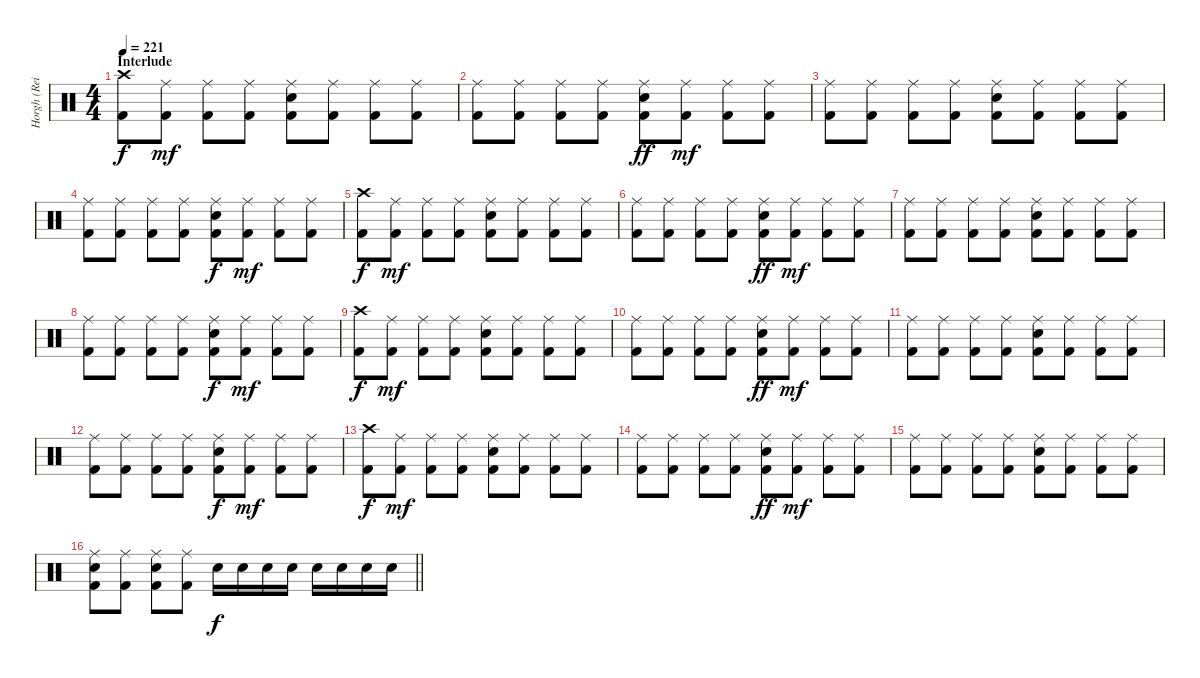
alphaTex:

\track ("Horgh (Reidar Horghagen)" "Horgh (Rei") {instrument percussion}
\staff {score}
\articulation defaults
\ts (4 4)
\section ("" "Interlude")
\tempo 221
\clef neutral
\ks c
("Crash high (hit)" "Kick (hit) 2").8{dy f} ("Ride (middle)" "Kick (hit) 2").8{dy mf} ("Ride (middle)" "Kick (hit) 2").8 ("Ride (middle)" "Kick (hit) 2").8 ("Ride (middle)" "Snare (hit) 2" "Kick (hit) 2").8 ("Ride (middle)" "Kick (hit) 2").8 ("Ride (middle)" "Kick (hit) 2").8 ("Ride (middle)" "Kick (hit) 2").8 |
("Ride (middle)" "Kick (hit) 2").8 ("Ride (middle)" "Kick (hit) 2").8 ("Ride (middle)" "Kick (hit) 2").8 ("Ride (middle)" "Kick (hit) 2").8 ("Ride (middle)" "Snare (hit) 2" "Kick (hit) 2").8{dy ff} ("Ride (middle)" "Kick (hit) 2").8{dy mf} ("Ride (middle)" "Kick (hit) 2").8 ("Ride (middle)" "Kick (hit) 2").8 |
("Ride (middle)" "Kick (hit) 2").8 ("Ride (middle)" "Kick (hit) 2").8 ("Ride (middle)" "Kick (hit) 2").8 ("Ride (middle)" "Kick (hit) 2").8 ("Ride (middle)" "Snare (hit) 2" "Kick (hit) 2").8 ("Ride (middle)" "Kick (hit) 2").8 ("Ride (middle)" "Kick (hit) 2").8 ("Ride (middle)" "Kick (hit) 2").8 |
("Ride (middle)" "Kick (hit) 2").8 ("Ride (middle)" "Kick (hit) 2").8 ("Ride (middle)" "Kick (hit) 2").8 ("Ride (middle)" "Kick (hit) 2").8 ("Ride (middle)" "Snare (hit) 2" "Kick (hit) 2").8{dy f} ("Ride (middle)" "Kick (hit) 2").8{dy mf} ("Ride (middle)" "Kick (hit) 2").8 ("Ride (middle)" "Kick (hit) 2").8 |
("Crash high (hit)" "Kick (hit) 2").8{dy f} ("Ride (middle)" "Kick (hit) 2").8{dy mf} ("Ride (middle)" "Kick (hit) 2").8 ("Ride (middle)" "Kick (hit) 2").8 ("Ride (middle)" "Snare (hit) 2" "Kick (hit) 2").8 ("Ride (middle)" "Kick (hit) 2").8 ("Ride (middle)" "Kick (hit) 2").8 ("Ride (middle)" "Kick (hit) 2").8 |
("Ride (middle)" "Kick (hit) 2").8 ("Ride (middle)" "Kick (hit) 2").8 ("Ride (middle)" "Kick (hit) 2").8 ("Ride (middle)" "Kick (hit) 2").8 ("Ride (middle)" "Snare (hit) 2" "Kick (hit) 2").8{dy ff} ("Ride (middle)" "Kick (hit) 2").8{dy mf} ("Ride (middle)" "Kick (hit) 2").8 ("Ride (middle)" "Kick (hit) 2").8 |
("Ride (middle)" "Kick (hit) 2").8 ("Ride (middle)" "Kick (hit) 2").8 ("Ride (middle)" "Kick (hit) 2").8 ("Ride (middle)" "Kick (hit) 2").8 ("Ride (middle)" "Snare (hit) 2" "Kick (hit) 2").8 ("Ride (middle)" "Kick (hit) 2").8 ("Ride (middle)" "Kick (hit) 2").8 ("Ride (middle)" "Kick (hit) 2").8 |
("Ride (middle)" "Kick (hit) 2").8 ("Ride (middle)" "Kick (hit) 2").8 ("Ride (middle)" "Kick (hit) 2").8 ("Ride (middle)" "Kick (hit) 2").8 ("Ride (middle)" "Snare (hit) 2" "Kick (hit) 2").8{dy f} ("Ride (middle)" "Kick (hit) 2").8{dy mf} ("Ride (middle)" "Kick (hit) 2").8 ("Ride (middle)" "Kick (hit) 2").8 |
("Crash high (hit)" "Kick (hit) 2").8{dy f} ("Ride (middle)" "Kick (hit) 2").8{dy mf} ("Ride (middle)" "Kick (hit) 2").8 ("Ride (middle)" "Kick (hit) 2").8 ("Ride (middle)" "Snare (hit) 2" "Kick (hit) 2").8 ("Ride (middle)" "Kick (hit) 2").8 ("Ride (middle)" "Kick (hit) 2").8 ("Ride (middle)" "Kick (hit) 2").8 |
("Ride (middle)" "Kick (hit) 2").8 ("Ride (middle)" "Kick (hit) 2").8 ("Ride (middle)" "Kick (hit) 2").8 ("Ride (middle)" "Kick (hit) 2").8 ("Ride (middle)" "Snare (hit) 2" "Kick (hit) 2").8{dy ff} ("Ride (middle)" "Kick (hit) 2").8{dy mf} ("Ride (middle)" "Kick (hit) 2").8 ("Ride (middle)" "Kick (hit) 2").8 |
("Ride (middle)" "Kick (hit) 2").8 ("Ride (middle)" "Kick (hit) 2").8 ("Ride (middle)" "Kick (hit) 2").8 ("Ride (middle)" "Kick (hit) 2").8 ("Ride (middle)" "Snare (hit) 2" "Kick (hit) 2").8 ("Ride (middle)" "Kick (hit) 2").8 ("Ride (middle)" "Kick (hit) 2").8 ("Ride (middle)" "Kick (hit) 2").8 |
("Ride (middle)" "Kick (hit) 2").8 ("Ride (middle)" "Kick (hit) 2").8 ("Ride (middle)" "Kick (hit) 2").8 ("Ride (middle)" "Kick (hit) 2").8 ("Ride (middle)" "Snare (hit) 2" "Kick (hit) 2").8{dy f} ("Ride (middle)" "Kick (hit) 2").8{dy mf} ("Ride (middle)" "Kick (hit) 2").8 ("Ride (middle)" "Kick (hit) 2").8 |
("Crash high (hit)" "Kick (hit) 2").8{dy f} ("Ride (middle)" "Kick (hit) 2").8{dy mf} ("Ride (middle)" "Kick (hit) 2").8 ("Ride (middle)" "Kick (hit) 2").8 ("Ride (middle)" "Snare (hit) 2" "Kick (hit) 2").8 ("Ride (middle)" "Kick (hit) 2").8 ("Ride (middle)" "Kick (hit) 2").8 ("Ride (middle)" "Kick (hit) 2").8 |
("Ride (middle)" "Kick (hit) 2").8 ("Ride (middle)" "Kick (hit) 2").8 ("Ride (middle)" "Kick (hit) 2").8 ("Ride (middle)" "Kick (hit) 2").8 ("Ride (middle)" "Snare (hit) 2" "Kick (hit) 2").8{dy ff} ("Ride (middle)" "Kick (hit) 2").8{dy mf} ("Ride (middle)" "Kick (hit) 2").8 ("Ride (middle)" "Kick (hit) 2").8 |
("Ride (middle)" "Kick (hit) 2").8 ("Ride (middle)" "Kick (hit) 2").8 ("Ride (middle)" "Kick (hit) 2").8 ("Ride (middle)" "Kick (hit) 2").8 ("Ride (middle)" "Snare (hit) 2" "Kick (hit) 2").8 ("Ride (middle)" "Kick (hit) 2").8 ("Ride (middle)" "Kick (hit) 2").8 ("Ride (middle)" "Kick (hit) 2").8 |
\barLineRight lightlight
("Ride (middle)" "Snare (hit) 2" "Kick (hit) 2").8 ("Ride (middle)" "Kick (hit) 2").8 ("Ride (middle)" "Snare (hit) 2" "Kick (hit) 2").8 ("Ride (middle)" "Kick (hit) 2").8 "Snare (hit) 2".16{dy f} "Snare (hit) 2".16 "Snare (hit) 2".16 "Snare (hit) 2".16 "Snare (hit) 2".16 "Snare (hit) 2".16 "Snare (hit) 2".16 "Snare (hit) 2".16
